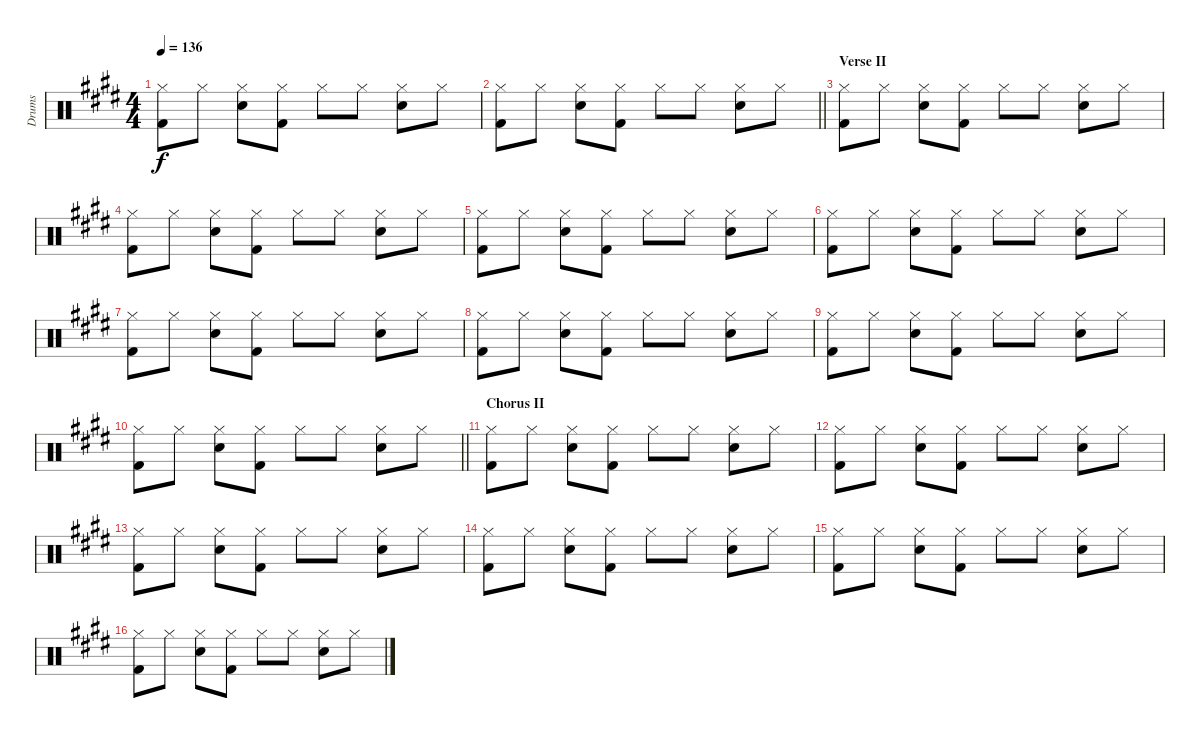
\track ("Drums" "Drums") {instrument percussion}
\staff {score}
\articulation defaults
\ts (4 4)
\tempo 136
\clef neutral
\ks e
("Hi-Hat (closed)" "Kick (hit) 2").8{dy f} "Hi-Hat (closed)".8 ("Hi-Hat (closed)" "Snare (hit) 2").8 ("Hi-Hat (closed)" "Kick (hit) 2").8 "Hi-Hat (closed)".8 "Hi-Hat (closed)".8 ("Hi-Hat (closed)" "Snare (hit) 2").8 "Hi-Hat (closed)".8 |
\barLineRight lightlight
("Hi-Hat (closed)" "Kick (hit) 2").8 "Hi-Hat (closed)".8 ("Hi-Hat (closed)" "Snare (hit) 2").8 ("Hi-Hat (closed)" "Kick (hit) 2").8 "Hi-Hat (closed)".8 "Hi-Hat (closed)".8 ("Hi-Hat (closed)" "Snare (hit) 2").8 "Hi-Hat (closed)".8 |
\section ("" "Verse II")
("Hi-Hat (closed)" "Kick (hit) 2").8 "Hi-Hat (closed)".8 ("Hi-Hat (closed)" "Snare (hit) 2").8 ("Hi-Hat (closed)" "Kick (hit) 2").8 "Hi-Hat (closed)".8 "Hi-Hat (closed)".8 ("Hi-Hat (closed)" "Snare (hit) 2").8 "Hi-Hat (closed)".8 |
("Hi-Hat (closed)" "Kick (hit) 2").8 "Hi-Hat (closed)".8 ("Hi-Hat (closed)" "Snare (hit) 2").8 ("Hi-Hat (closed)" "Kick (hit) 2").8 "Hi-Hat (closed)".8 "Hi-Hat (closed)".8 ("Hi-Hat (closed)" "Snare (hit) 2").8 "Hi-Hat (closed)".8 |
("Hi-Hat (closed)" "Kick (hit) 2").8 "Hi-Hat (closed)".8 ("Hi-Hat (closed)" "Snare (hit) 2").8 ("Hi-Hat (closed)" "Kick (hit) 2").8 "Hi-Hat (closed)".8 "Hi-Hat (closed)".8 ("Hi-Hat (closed)" "Snare (hit) 2").8 "Hi-Hat (closed)".8 |
("Hi-Hat (closed)" "Kick (hit) 2").8 "Hi-Hat (closed)".8 ("Hi-Hat (closed)" "Snare (hit) 2").8 ("Hi-Hat (closed)" "Kick (hit) 2").8 "Hi-Hat (closed)".8 "Hi-Hat (closed)".8 ("Hi-Hat (closed)" "Snare (hit) 2").8 "Hi-Hat (closed)".8 |
("Hi-Hat (closed)" "Kick (hit) 2").8 "Hi-Hat (closed)".8 ("Hi-Hat (closed)" "Snare (hit) 2").8 ("Hi-Hat (closed)" "Kick (hit) 2").8 "Hi-Hat (closed)".8 "Hi-Hat (closed)".8 ("Hi-Hat (closed)" "Snare (hit) 2").8 "Hi-Hat (closed)".8 |
("Hi-Hat (closed)" "Kick (hit) 2").8 "Hi-Hat (closed)".8 ("Hi-Hat (closed)" "Snare (hit) 2").8 ("Hi-Hat (closed)" "Kick (hit) 2").8 "Hi-Hat (closed)".8 "Hi-Hat (closed)".8 ("Hi-Hat (closed)" "Snare (hit) 2").8 "Hi-Hat (closed)".8 |
("Hi-Hat (closed)" "Kick (hit) 2").8 "Hi-Hat (closed)".8 ("Hi-Hat (closed)" "Snare (hit) 2").8 ("Hi-Hat (closed)" "Kick (hit) 2").8 "Hi-Hat (closed)".8 "Hi-Hat (closed)".8 ("Hi-Hat (closed)" "Snare (hit) 2").8 "Hi-Hat (closed)".8 |
\barLineRight lightlight
("Hi-Hat (closed)" "Kick (hit) 2").8 "Hi-Hat (closed)".8 ("Hi-Hat (closed)" "Snare (hit) 2").8 ("Hi-Hat (closed)" "Kick (hit) 2").8 "Hi-Hat (closed)".8 "Hi-Hat (closed)".8 ("Hi-Hat (closed)" "Snare (hit) 2").8 "Hi-Hat (closed)".8 |
\section ("" "Chorus II")
("Hi-Hat (closed)" "Kick (hit) 2").8 "Hi-Hat (closed)".8 ("Hi-Hat (closed)" "Snare (hit) 2").8 ("Hi-Hat (closed)" "Kick (hit) 2").8 "Hi-Hat (closed)".8 "Hi-Hat (closed)".8 ("Hi-Hat (closed)" "Snare (hit) 2").8 "Hi-Hat (closed)".8 |
("Hi-Hat (closed)" "Kick (hit) 2").8 "Hi-Hat (closed)".8 ("Hi-Hat (closed)" "Snare (hit) 2").8 ("Hi-Hat (closed)" "Kick (hit) 2").8 "Hi-Hat (closed)".8 "Hi-Hat (closed)".8 ("Hi-Hat (closed)" "Snare (hit) 2").8 "Hi-Hat (closed)".8 |
("Hi-Hat (closed)" "Kick (hit) 2").8 "Hi-Hat (closed)".8 ("Hi-Hat (closed)" "Snare (hit) 2").8 ("Hi-Hat (closed)" "Kick (hit) 2").8 "Hi-Hat (closed)".8 "Hi-Hat (closed)".8 ("Hi-Hat (closed)" "Snare (hit) 2").8 "Hi-Hat (closed)".8 |
("Hi-Hat (closed)" "Kick (hit) 2").8 "Hi-Hat (closed)".8 ("Hi-Hat (closed)" "Snare (hit) 2").8 ("Hi-Hat (closed)" "Kick (hit) 2").8 "Hi-Hat (closed)".8 "Hi-Hat (closed)".8 ("Hi-Hat (closed)" "Snare (hit) 2").8 "Hi-Hat (closed)".8 |
("Hi-Hat (closed)" "Kick (hit) 2").8 "Hi-Hat (closed)".8 ("Hi-Hat (closed)" "Snare (hit) 2").8 ("Hi-Hat (closed)" "Kick (hit) 2").8 "Hi-Hat (closed)".8 "Hi-Hat (closed)".8 ("Hi-Hat (closed)" "Snare (hit) 2").8 "Hi-Hat (closed)".8 |
("Hi-Hat (closed)" "Kick (hit) 2").8 "Hi-Hat (closed)".8 ("Hi-Hat (closed)" "Snare (hit) 2").8 ("Hi-Hat (closed)" "Kick (hit) 2").8 "Hi-Hat (closed)".8 "Hi-Hat (closed)".8 ("Hi-Hat (closed)" "Snare (hit) 2").8 "Hi-Hat (closed)".8
